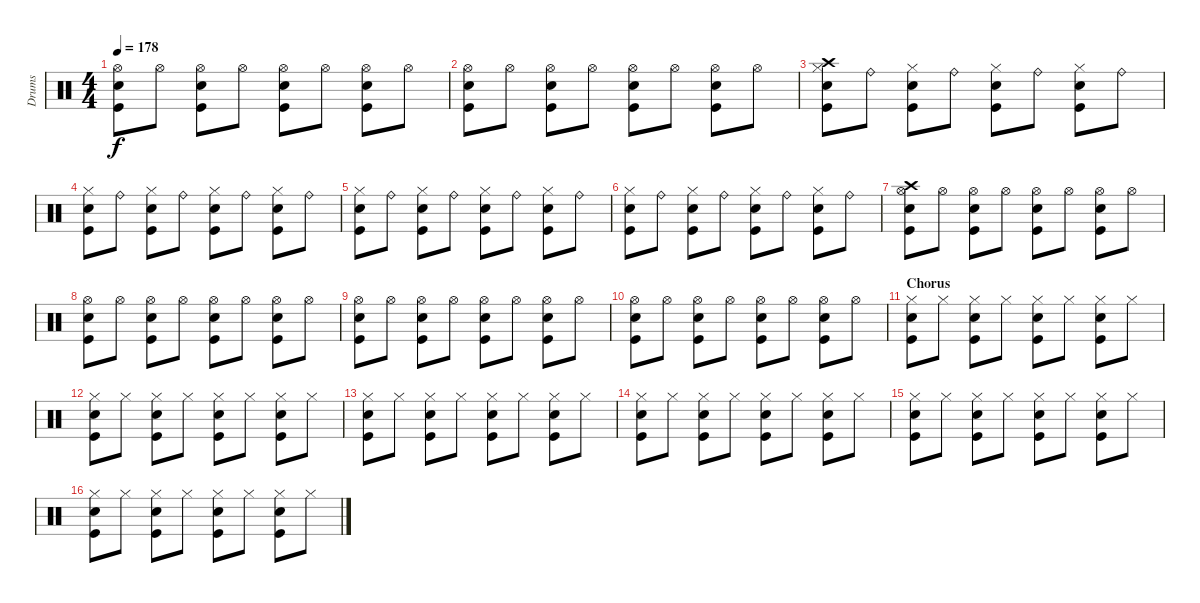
\track ("Drums" "Drums") {instrument percussion}
\staff {score}
\articulation defaults
\ts (4 4)
\tempo 178
\clef neutral
\ks c
("Electric Snare (hit)" "Hi-Hat (open)" "Kick (hit)").8{dy f} "Hi-Hat (open)".8 ("Electric Snare (hit)" "Hi-Hat (open)" "Kick (hit)").8 "Hi-Hat (open)".8 ("Electric Snare (hit)" "Hi-Hat (open)" "Kick (hit)").8 "Hi-Hat (open)".8 ("Electric Snare (hit)" "Hi-Hat (open)" "Kick (hit)").8 "Hi-Hat (open)".8 |
("Electric Snare (hit)" "Hi-Hat (open)" "Kick (hit)").8 "Hi-Hat (open)".8 ("Electric Snare (hit)" "Hi-Hat (open)" "Kick (hit)").8 "Hi-Hat (open)".8 ("Electric Snare (hit)" "Hi-Hat (open)" "Kick (hit)").8 "Hi-Hat (open)".8 ("Electric Snare (hit)" "Hi-Hat (open)" "Kick (hit)").8 "Hi-Hat (open)".8 |
("Crash high (hit)" "Electric Snare (hit)" "Hi-Hat (closed)" "Kick (hit)").8 "Ride (bell)".8 ("Electric Snare (hit)" "Hi-Hat (closed)" "Kick (hit)").8 "Ride (bell)".8 ("Electric Snare (hit)" "Hi-Hat (closed)" "Kick (hit)").8 "Ride (bell)".8 ("Electric Snare (hit)" "Hi-Hat (closed)" "Kick (hit)").8 "Ride (bell)".8 |
("Electric Snare (hit)" "Hi-Hat (closed)" "Kick (hit)").8 "Ride (bell)".8 ("Electric Snare (hit)" "Hi-Hat (closed)" "Kick (hit)").8 "Ride (bell)".8 ("Electric Snare (hit)" "Hi-Hat (closed)" "Kick (hit)").8 "Ride (bell)".8 ("Electric Snare (hit)" "Hi-Hat (closed)" "Kick (hit)").8 "Ride (bell)".8 |
("Electric Snare (hit)" "Hi-Hat (closed)" "Kick (hit)").8 "Ride (bell)".8 ("Electric Snare (hit)" "Hi-Hat (closed)" "Kick (hit)").8 "Ride (bell)".8 ("Electric Snare (hit)" "Hi-Hat (closed)" "Kick (hit)").8 "Ride (bell)".8 ("Electric Snare (hit)" "Hi-Hat (closed)" "Kick (hit)").8 "Ride (bell)".8 |
("Electric Snare (hit)" "Hi-Hat (closed)" "Kick (hit)").8 "Ride (bell)".8 ("Electric Snare (hit)" "Hi-Hat (closed)" "Kick (hit)").8 "Ride (bell)".8 ("Electric Snare (hit)" "Hi-Hat (closed)" "Kick (hit)").8 "Ride (bell)".8 ("Electric Snare (hit)" "Hi-Hat (closed)" "Kick (hit)").8 "Ride (bell)".8 |
("Crash high (hit)" "Electric Snare (hit)" "Hi-Hat (open)" "Kick (hit)").8 "Hi-Hat (open)".8 ("Electric Snare (hit)" "Hi-Hat (open)" "Kick (hit)").8 "Hi-Hat (open)".8 ("Electric Snare (hit)" "Hi-Hat (open)" "Kick (hit)").8 "Hi-Hat (open)".8 ("Electric Snare (hit)" "Hi-Hat (open)" "Kick (hit)").8 "Hi-Hat (open)".8 |
("Electric Snare (hit)" "Hi-Hat (open)" "Kick (hit)").8 "Hi-Hat (open)".8 ("Electric Snare (hit)" "Hi-Hat (open)" "Kick (hit)").8 "Hi-Hat (open)".8 ("Electric Snare (hit)" "Hi-Hat (open)" "Kick (hit)").8 "Hi-Hat (open)".8 ("Electric Snare (hit)" "Hi-Hat (open)" "Kick (hit)").8 "Hi-Hat (open)".8 |
("Electric Snare (hit)" "Hi-Hat (open)" "Kick (hit)").8 "Hi-Hat (open)".8 ("Electric Snare (hit)" "Hi-Hat (open)" "Kick (hit)").8 "Hi-Hat (open)".8 ("Electric Snare (hit)" "Hi-Hat (open)" "Kick (hit)").8 "Hi-Hat (open)".8 ("Electric Snare (hit)" "Hi-Hat (open)" "Kick (hit)").8 "Hi-Hat (open)".8 |
("Electric Snare (hit)" "Hi-Hat (open)" "Kick (hit)").8 "Hi-Hat (open)".8 ("Electric Snare (hit)" "Hi-Hat (open)" "Kick (hit)").8 "Hi-Hat (open)".8 ("Electric Snare (hit)" "Hi-Hat (open)" "Kick (hit)").8 "Hi-Hat (open)".8 ("Electric Snare (hit)" "Hi-Hat (open)" "Kick (hit)").8 "Hi-Hat (open)".8 |
\section ("" "Chorus")
("Electric Snare (hit)" "Hi-Hat (closed)" "Kick (hit)").8 "Hi-Hat (closed)".8 ("Electric Snare (hit)" "Hi-Hat (closed)" "Kick (hit)").8 "Hi-Hat (closed)".8 ("Electric Snare (hit)" "Hi-Hat (closed)" "Kick (hit)").8 "Hi-Hat (closed)".8 ("Electric Snare (hit)" "Hi-Hat (closed)" "Kick (hit)").8 "Hi-Hat (closed)".8 |
("Electric Snare (hit)" "Hi-Hat (closed)" "Kick (hit)").8 "Hi-Hat (closed)".8 ("Electric Snare (hit)" "Hi-Hat (closed)" "Kick (hit)").8 "Hi-Hat (closed)".8 ("Electric Snare (hit)" "Hi-Hat (closed)" "Kick (hit)").8 "Hi-Hat (closed)".8 ("Electric Snare (hit)" "Hi-Hat (closed)" "Kick (hit)").8 "Hi-Hat (closed)".8 |
("Electric Snare (hit)" "Hi-Hat (closed)" "Kick (hit)").8 "Hi-Hat (closed)".8 ("Electric Snare (hit)" "Hi-Hat (closed)" "Kick (hit)").8 "Hi-Hat (closed)".8 ("Electric Snare (hit)" "Hi-Hat (closed)" "Kick (hit)").8 "Hi-Hat (closed)".8 ("Electric Snare (hit)" "Hi-Hat (closed)" "Kick (hit)").8 "Hi-Hat (closed)".8 |
("Electric Snare (hit)" "Hi-Hat (closed)" "Kick (hit)").8 "Hi-Hat (closed)".8 ("Electric Snare (hit)" "Hi-Hat (closed)" "Kick (hit)").8 "Hi-Hat (closed)".8 ("Electric Snare (hit)" "Hi-Hat (closed)" "Kick (hit)").8 "Hi-Hat (closed)".8 ("Electric Snare (hit)" "Hi-Hat (closed)" "Kick (hit)").8 "Hi-Hat (closed)".8 |
("Electric Snare (hit)" "Hi-Hat (closed)" "Kick (hit)").8 "Hi-Hat (closed)".8 ("Electric Snare (hit)" "Hi-Hat (closed)" "Kick (hit)").8 "Hi-Hat (closed)".8 ("Electric Snare (hit)" "Hi-Hat (closed)" "Kick (hit)").8 "Hi-Hat (closed)".8 ("Electric Snare (hit)" "Hi-Hat (closed)" "Kick (hit)").8 "Hi-Hat (closed)".8 |
("Electric Snare (hit)" "Hi-Hat (closed)" "Kick (hit)").8 "Hi-Hat (closed)".8 ("Electric Snare (hit)" "Hi-Hat (closed)" "Kick (hit)").8 "Hi-Hat (closed)".8 ("Electric Snare (hit)" "Hi-Hat (closed)" "Kick (hit)").8 "Hi-Hat (closed)".8 ("Electric Snare (hit)" "Hi-Hat (closed)" "Kick (hit)").8 "Hi-Hat (closed)".8
